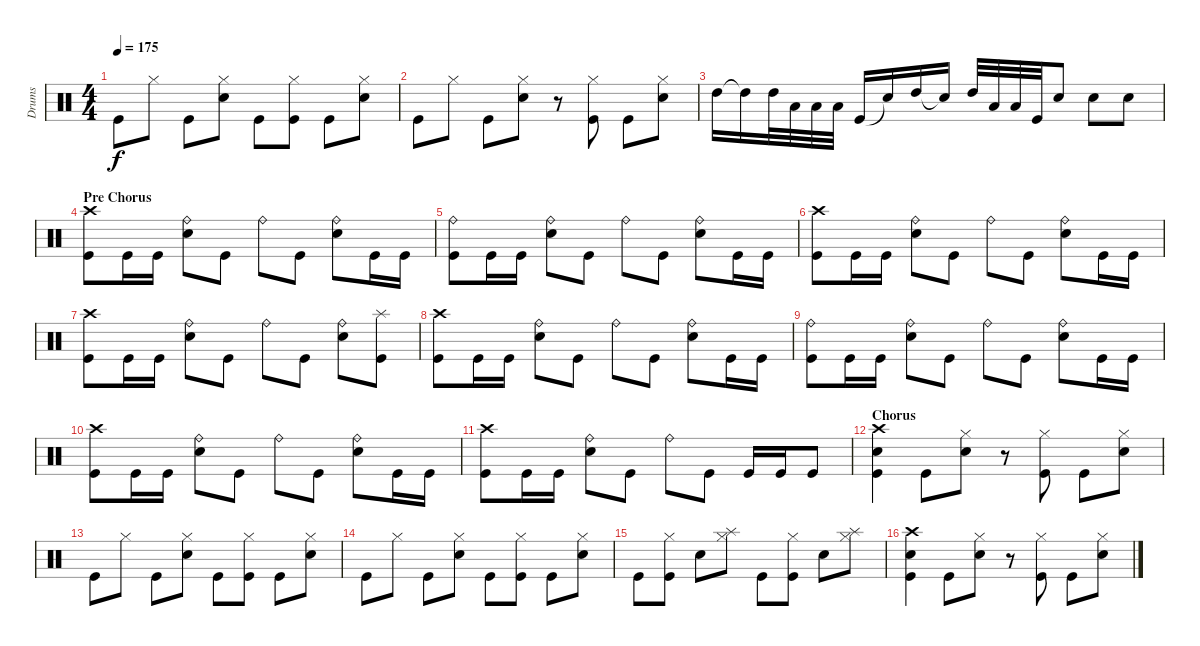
\track ("Drums" "Drums") {instrument percussion}
\staff {score}
\articulation defaults
\ts (4 4)
\tempo 175
\clef neutral
\ks c "Kick (hit)".8{dy f} "Hi-Hat (closed)".8 "Kick (hit)".8
("Hi-Hat (closed)" "Electric Snare (hit)").8 "Kick (hit)".8 ("Hi-Hat (closed)" "Kick (hit)").8 "Kick (hit)".8 ("Hi-Hat (closed)" "Electric Snare (hit)").8 |
"Kick (hit)".8 "Hi-Hat (closed)".8 "Kick (hit)".8 ("Hi-Hat (closed)" "Electric Snare (hit)").8 r.8 ("Hi-Hat (closed)" "Kick (hit)").8 "Kick (hit)".8 ("Hi-Hat (closed)" "Electric Snare (hit)").8 |
"High Tom (hit)".16 "High Tom (hit)"{t}.16 "High Tom (hit)".32 "Low Tom (hit)".32 "Low Tom (hit)".32 "Low Tom (hit)".32 "Kick (hit)".16 "Snare (hit)"{t}.16 "High Tom (hit)".16 "Snare (hit)"{t}.16 "High Tom (hit)".32 "Low Tom (hit)".32 "Low Tom (hit)".32 "Kick (hit)".32 "Electric Snare (hit)".8 "Electric Snare (hit)".8 "Electric Snare (hit)".8 |
\section ("" "Pre Chorus")
("Crash high (hit)" "Kick (hit)").8 "Kick (hit)".16 "Kick (hit)".16 ("Ride (bell)" "Electric Snare (hit)").8 "Kick (hit)".8 "Ride (bell)".8 "Kick (hit)".8 ("Ride (bell)" "Electric Snare (hit)").8 "Kick (hit)".16 "Kick (hit)".16 |
("Ride (bell)" "Kick (hit)").8 "Kick (hit)".16 "Kick (hit)".16 ("Ride (bell)" "Electric Snare (hit)").8 "Kick (hit)".8 "Ride (bell)".8 "Kick (hit)".8 ("Ride (bell)" "Electric Snare (hit)").8 "Kick (hit)".16 "Kick (hit)".16 |
("Crash high (hit)" "Kick (hit)").8 "Kick (hit)".16 "Kick (hit)".16 ("Ride (bell)" "Electric Snare (hit)").8 "Kick (hit)".8 "Ride (bell)".8 "Kick (hit)".8 ("Ride (bell)" "Electric Snare (hit)").8 "Kick (hit)".16 "Kick (hit)".16 |
("Crash high (hit)" "Kick (hit)").8 "Kick (hit)".16 "Kick (hit)".16 ("Ride (bell)" "Electric Snare (hit)").8 "Kick (hit)".8 "Ride (bell)".8 "Kick (hit)".8 ("Ride (bell)" "Electric Snare (hit)").8 ("Splash (hit)" "Kick (hit)").8 |
("Crash high (hit)" "Kick (hit)").8 "Kick (hit)".16 "Kick (hit)".16 ("Ride (bell)" "Electric Snare (hit)").8 "Kick (hit)".8 "Ride (bell)".8 "Kick (hit)".8 ("Ride (bell)" "Electric Snare (hit)").8 "Kick (hit)".16 "Kick (hit)".16 |
("Ride (bell)" "Kick (hit)").8 "Kick (hit)".16 "Kick (hit)".16 ("Ride (bell)" "Electric Snare (hit)").8 "Kick (hit)".8 "Ride (bell)".8 "Kick (hit)".8 ("Ride (bell)" "Electric Snare (hit)").8 "Kick (hit)".16 "Kick (hit)".16 |
("Crash high (hit)" "Kick (hit)").8 "Kick (hit)".16 "Kick (hit)".16 ("Ride (bell)" "Electric Snare (hit)").8 "Kick (hit)".8 "Ride (bell)".8 "Kick (hit)".8 ("Ride (bell)" "Electric Snare (hit)").8 "Kick (hit)".16 "Kick (hit)".16 |
("Crash high (hit)" "Kick (hit)").8 "Kick (hit)".16 "Kick (hit)".16 ("Ride (bell)" "Electric Snare (hit)").8 "Kick (hit)".8 "Ride (bell)".8 "Kick (hit)".8 "Kick (hit)".16 "Kick (hit)".16 "Kick (hit)".8 |
\section ("" "Chorus")
("Crash high (hit)" "Electric Snare (hit)" "Kick (hit)").4 "Kick (hit)".8 ("Hi-Hat (closed)" "Electric Snare (hit)").8 r.8 ("Hi-Hat (closed)" "Kick (hit)").8 "Kick (hit)".8 ("Hi-Hat (closed)" "Electric Snare (hit)").8 |
"Kick (hit)".8 "Hi-Hat (closed)".8 "Kick (hit)".8 ("Hi-Hat (closed)" "Electric Snare (hit)").8 "Kick (hit)".8 ("Hi-Hat (closed)" "Kick (hit)").8 "Kick (hit)".8 ("Hi-Hat (closed)" "Electric Snare (hit)").8 |
"Kick (hit)".8 "Hi-Hat (closed)".8 "Kick (hit)".8 ("Hi-Hat (closed)" "Electric Snare (hit)").8 "Kick (hit)".8 ("Hi-Hat (closed)" "Kick (hit)").8 "Kick (hit)".8 ("Hi-Hat (closed)" "Electric Snare (hit)").8 |
"Kick (hit)".8 ("Hi-Hat (closed)" "Kick (hit)").8 "Electric Snare (hit)".8 ("Hi-Hat (closed)" "Splash (hit)").8 "Kick (hit)".8 ("Hi-Hat (closed)" "Kick (hit)").8 "Electric Snare (hit)".8 ("Hi-Hat (closed)" "Splash (hit)").8 |
("Crash high (hit)" "Electric Snare (hit)" "Kick (hit)").4 "Kick (hit)".8 ("Hi-Hat (closed)" "Electric Snare (hit)").8 r.8 ("Hi-Hat (closed)" "Kick (hit)").8 "Kick (hit)".8 ("Hi-Hat (closed)" "Electric Snare (hit)").8
